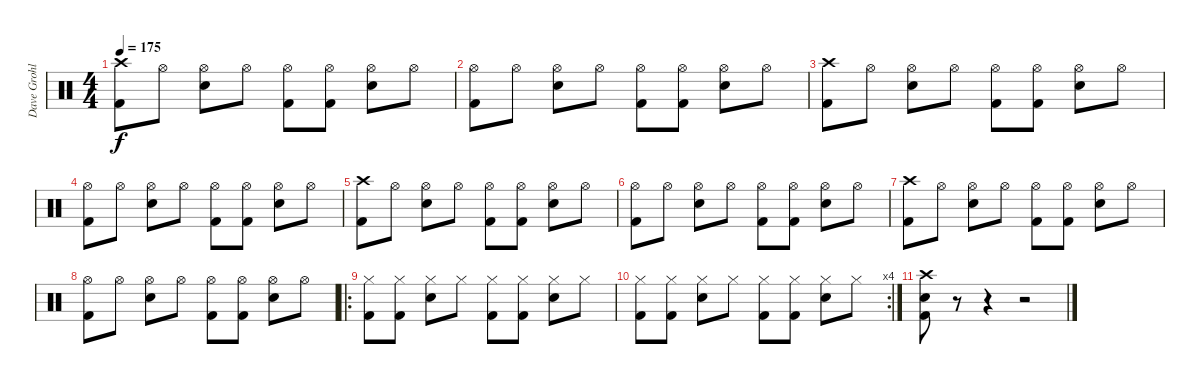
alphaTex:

\track ("Dave Grohl" "Dave Grohl") {instrument percussion}
\staff {score}
\articulation defaults
\ts (4 4)
\tempo 175
\clef neutral
\ks c
("Crash high (hit)" "Kick (hit) 2").8{dy f} "Hi-Hat (open)".8 ("Hi-Hat (open)" "Electric Snare (hit)").8 "Hi-Hat (open)".8 ("Hi-Hat (open)" "Kick (hit) 2").8 ("Hi-Hat (open)" "Kick (hit) 2").8 ("Hi-Hat (open)" "Electric Snare (hit)").8 "Hi-Hat (open)".8 |
("Hi-Hat (open)" "Kick (hit) 2").8 "Hi-Hat (open)".8 ("Hi-Hat (open)" "Electric Snare (hit)").8 "Hi-Hat (open)".8 ("Hi-Hat (open)" "Kick (hit) 2").8 ("Hi-Hat (open)" "Kick (hit) 2").8 ("Hi-Hat (open)" "Electric Snare (hit)").8 "Hi-Hat (open)".8 |
("Crash high (hit)" "Kick (hit) 2").8 "Hi-Hat (open)".8 ("Hi-Hat (open)" "Electric Snare (hit)").8 "Hi-Hat (open)".8 ("Hi-Hat (open)" "Kick (hit) 2").8 ("Hi-Hat (open)" "Kick (hit) 2").8 ("Hi-Hat (open)" "Electric Snare (hit)").8 "Hi-Hat (open)".8 |
("Hi-Hat (open)" "Kick (hit) 2").8 "Hi-Hat (open)".8 ("Hi-Hat (open)" "Electric Snare (hit)").8 "Hi-Hat (open)".8 ("Hi-Hat (open)" "Kick (hit) 2").8 ("Hi-Hat (open)" "Kick (hit) 2").8 ("Hi-Hat (open)" "Electric Snare (hit)").8 "Hi-Hat (open)".8 |
("Crash high (hit)" "Kick (hit) 2").8 "Hi-Hat (open)".8 ("Hi-Hat (open)" "Electric Snare (hit)").8 "Hi-Hat (open)".8 ("Hi-Hat (open)" "Kick (hit) 2").8 ("Hi-Hat (open)" "Kick (hit) 2").8 ("Hi-Hat (open)" "Electric Snare (hit)").8 "Hi-Hat (open)".8 |
("Hi-Hat (open)" "Kick (hit) 2").8 "Hi-Hat (open)".8 ("Hi-Hat (open)" "Electric Snare (hit)").8 "Hi-Hat (open)".8 ("Hi-Hat (open)" "Kick (hit) 2").8 ("Hi-Hat (open)" "Kick (hit) 2").8 ("Hi-Hat (open)" "Electric Snare (hit)").8 "Hi-Hat (open)".8 |
("Crash high (hit)" "Kick (hit) 2").8 "Hi-Hat (open)".8 ("Hi-Hat (open)" "Electric Snare (hit)").8 "Hi-Hat (open)".8 ("Hi-Hat (open)" "Kick (hit) 2").8 ("Hi-Hat (open)" "Kick (hit) 2").8 ("Hi-Hat (open)" "Electric Snare (hit)").8 "Hi-Hat (open)".8 |
("Hi-Hat (open)" "Kick (hit) 2").8 "Hi-Hat (open)".8 ("Hi-Hat (open)" "Electric Snare (hit)").8 "Hi-Hat (open)".8 ("Hi-Hat (open)" "Kick (hit) 2").8 ("Hi-Hat (open)" "Kick (hit) 2").8 ("Hi-Hat (open)" "Electric Snare (hit)").8 "Hi-Hat (open)".8 |
\ro
("Hi-Hat (closed)" "Kick (hit) 2").8 ("Hi-Hat (closed)" "Kick (hit) 2").8 ("Hi-Hat (closed)" "Electric Snare (hit)").8 "Hi-Hat (closed)".8 ("Hi-Hat (closed)" "Kick (hit) 2").8 ("Hi-Hat (closed)" "Kick (hit) 2").8 ("Hi-Hat (closed)" "Electric Snare (hit)").8 "Hi-Hat (closed)".8 |
\rc 4
("Hi-Hat (closed)" "Kick (hit) 2").8 ("Hi-Hat (closed)" "Kick (hit) 2").8 ("Hi-Hat (closed)" "Electric Snare (hit)").8 "Hi-Hat (closed)".8 ("Hi-Hat (closed)" "Kick (hit) 2").8 ("Hi-Hat (closed)" "Kick (hit) 2").8 ("Hi-Hat (closed)" "Electric Snare (hit)").8 "Hi-Hat (closed)".8 |
("Crash high (hit)" "Electric Snare (hit)" "Kick (hit) 2").8 r.8 r.4 r.2
